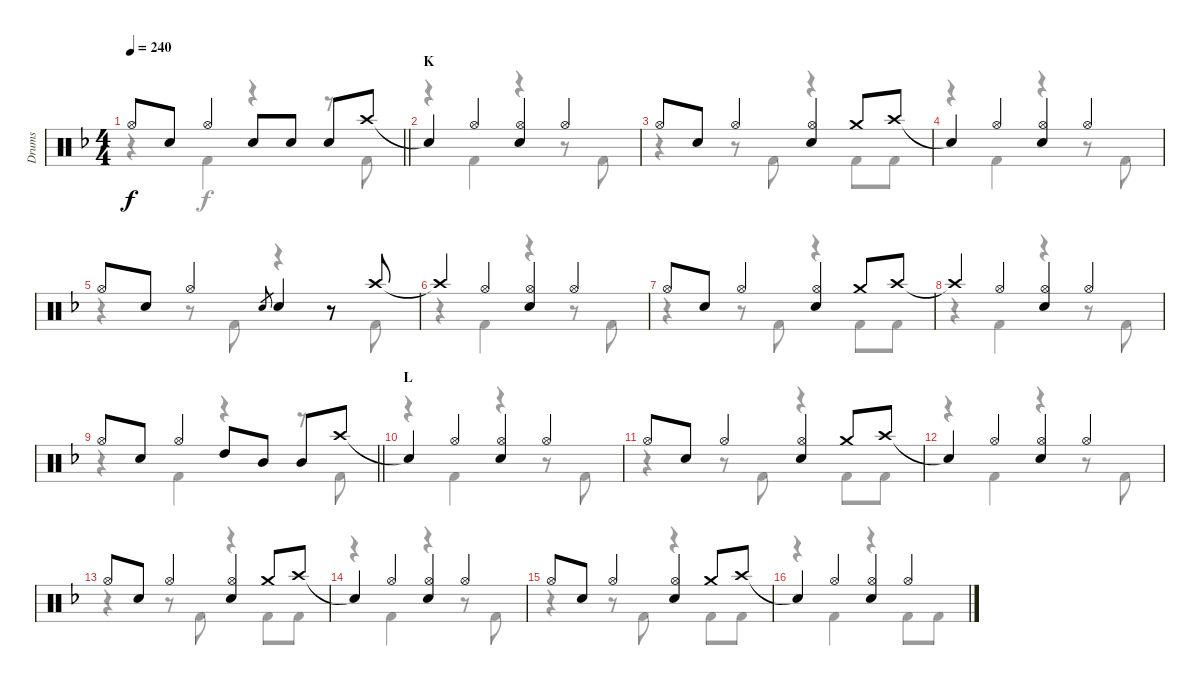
\track ("Drums" "Drums") {instrument percussion}
\staff {score}
\articulation defaults
\voice
\ts (4 4)
\tempo 240
\clef neutral
\barLineRight lightlight
\ks f "Hi-Hat (open)".8{dy f} "Snare (hit) 2".8 "Hi-Hat (open)".4 "Snare (hit) 2".8 "Snare (hit) 2".8 "Snare (hit) 2".8 "Crash high (hit)".8
|
\section ("" "K")
"Snare (hit)"{t}.4 "Hi-Hat (open)".4 ("Hi-Hat (open)" "Snare (hit) 2").4 "Hi-Hat (open)".4 |
"Hi-Hat (open)".8 "Snare (hit) 2".8 "Hi-Hat (open)".4 ("Hi-Hat (open)" "Snare (hit) 2").4 "Crash medium (hit)".8 "Crash high (hit)".8 |
"Snare (hit)"{t}.4 "Hi-Hat (open)".4 ("Hi-Hat (open)" "Snare (hit) 2").4 "Hi-Hat (open)".4 |
"Hi-Hat (open)".8 "Snare (hit) 2".8 "Hi-Hat (open)".4 "Snare (hit) 2".8{gr} "Snare (hit) 2".4 r.8 "Crash high (hit)".8 |
"Crash high (hit)"{t}.4 "Hi-Hat (open)".4 ("Hi-Hat (open)" "Snare (hit) 2").4 "Hi-Hat (open)".4 |
"Hi-Hat (open)".8 "Snare (hit) 2".8 "Hi-Hat (open)".4 ("Hi-Hat (open)" "Snare (hit) 2").4 "Crash medium (hit)".8 "Crash high (hit)".8 |
"Crash high (hit)"{t}.4 "Hi-Hat (open)".4 ("Hi-Hat (open)" "Snare (hit) 2").4 "Hi-Hat (open)".4 |
\barLineRight lightlight "Hi-Hat (open)".8 "Snare (hit) 2".8 "Hi-Hat (open)".4 "High Tom (hit)".8 "Mid Tom (hit)".8 "Mid Tom (hit)".8 "Crash high (hit)".8
|
\section ("" "L")
"Snare (hit)"{t}.4 "Hi-Hat (open)".4 ("Hi-Hat (open)" "Snare (hit) 2").4 "Hi-Hat (open)".4 |
"Hi-Hat (open)".8 "Snare (hit) 2".8 "Hi-Hat (open)".4 ("Hi-Hat (open)" "Snare (hit) 2").4 "Crash medium (hit)".8 "Crash high (hit)".8 |
"Snare (hit)"{t}.4 "Hi-Hat (open)".4 ("Hi-Hat (open)" "Snare (hit) 2").4 "Hi-Hat (open)".4 |
"Hi-Hat (open)".8 "Snare (hit) 2".8 "Hi-Hat (open)".4 ("Hi-Hat (open)" "Snare (hit) 2").4 "Crash medium (hit)".8 "Crash high (hit)".8 |
"Snare (hit)"{t}.4 "Hi-Hat (open)".4 ("Hi-Hat (open)" "Snare (hit) 2").4 "Hi-Hat (open)".4 |
"Hi-Hat (open)".8 "Snare (hit) 2".8 "Hi-Hat (open)".4 ("Hi-Hat (open)" "Snare (hit) 2").4 "Crash medium (hit)".8 "Crash high (hit)".8 |
"Snare (hit)"{t}.4 "Hi-Hat (open)".4 ("Hi-Hat (open)" "Snare (hit) 2").4 "Hi-Hat (open)".4
\voice
\clef neutral
\ottava regular
\simile none
\barLineRight lightlight
\ks f
r.4{dy f} "Kick (hit) 2".4 r.4 r.8 "Kick (hit) 2".8 |
r.4 "Kick (hit) 2".4 r.4 r.8 "Kick (hit) 2".8 |
r.4 r.8 "Kick (hit) 2".8 r.4 "Kick (hit) 2".8 "Kick (hit) 2".8 |
r.4 "Kick (hit) 2".4 r.4 r.8 "Kick (hit) 2".8 |
r.4 r.8 "Kick (hit) 2".8 r.4 r.8 "Kick (hit) 2".8 |
r.4 "Kick (hit) 2".4 r.4 r.8 "Kick (hit) 2".8 |
r.4 r.8 "Kick (hit) 2".8 r.4 "Kick (hit) 2".8 "Kick (hit) 2".8 |
r.4 "Kick (hit) 2".4 r.4 r.8 "Kick (hit) 2".8 |
\barLineRight lightlight
r.4 "Kick (hit) 2".4 r.4 r.8 "Kick (hit) 2".8 |
r.4 "Kick (hit) 2".4 r.4 r.8 "Kick (hit) 2".8 |
r.4 r.8 "Kick (hit) 2".8 r.4 "Kick (hit) 2".8 "Kick (hit) 2".8 |
r.4 "Kick (hit) 2".4 r.4 r.8 "Kick (hit) 2".8 |
r.4 r.8 "Kick (hit) 2".8 r.4 "Kick (hit) 2".8 "Kick (hit) 2".8 |
r.4 "Kick (hit) 2".4 r.4 r.8 "Kick (hit) 2".8 |
r.4 r.8 "Kick (hit) 2".8 r.4 "Kick (hit) 2".8 "Kick (hit) 2".8 |
r.4 "Kick (hit) 2".4 r.4 "Kick (hit) 2".8 "Kick (hit) 2".8
